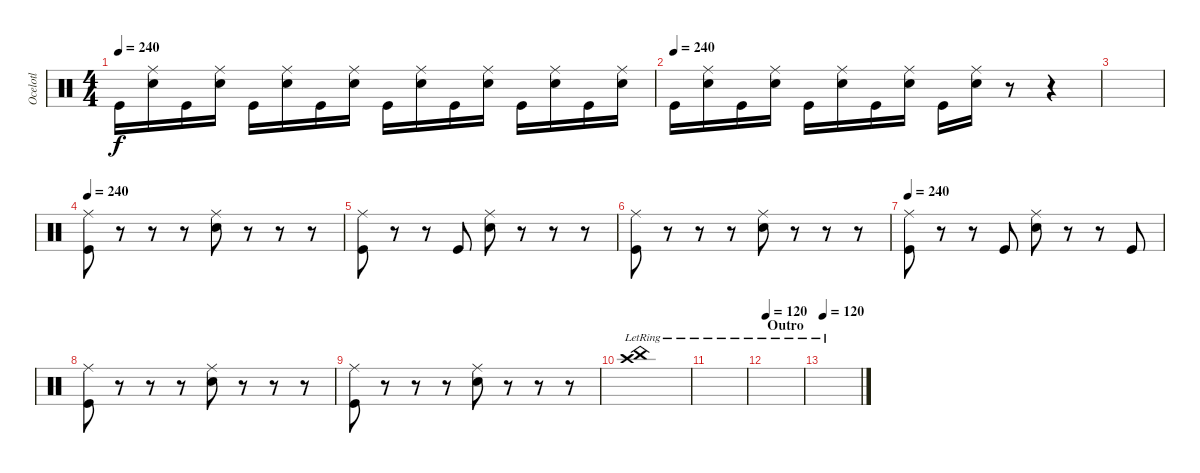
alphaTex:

\track ("Ocelotl" "Ocelotl") {instrument percussion}
\staff {score}
\articulation defaults
\ts (4 4)
\tempo 240
\clef neutral
\ks c "Kick (hit)".16{dy f}
("Ride (middle)" "Snare (hit) 2").16 "Kick (hit)".16 ("Ride (middle)" "Snare (hit) 2").16 "Kick (hit)".16 ("Ride (middle)" "Snare (hit) 2").16 "Kick (hit)".16 ("Ride (middle)" "Snare (hit) 2").16 "Kick (hit)".16 ("Ride (middle)" "Snare (hit) 2").16 "Kick (hit)".16 ("Ride (middle)" "Snare (hit) 2").16 "Kick (hit)".16 ("Ride (middle)" "Snare (hit) 2").16 "Kick (hit)".16 ("Ride (middle)" "Snare (hit) 2").16 |
\tempo (240)
"Kick (hit)".16 ("Ride (middle)" "Snare (hit) 2").16 "Kick (hit)".16 ("Ride (middle)" "Snare (hit) 2").16 "Kick (hit)".16 ("Ride (middle)" "Snare (hit) 2").16 "Kick (hit)".16 ("Ride (middle)" "Snare (hit) 2").16 "Kick (hit)".16 ("Ride (middle)" "Snare (hit) 2").16 r.8 r.4 |
|
\tempo 240
("Ride (middle)" "Kick (hit)").8 r.8 r.8 r.8 ("Ride (middle)" "Snare (hit) 2").8 r.8 r.8 r.8 |
("Ride (middle)" "Kick (hit)").8 r.8 r.8 "Kick (hit)".8 ("Ride (middle)" "Snare (hit) 2").8 r.8 r.8 r.8 |
("Ride (middle)" "Kick (hit)").8 r.8 r.8 r.8 ("Ride (middle)" "Snare (hit) 2").8 r.8 r.8 r.8 |
\tempo 240
("Ride (middle)" "Kick (hit)").8 r.8 r.8 "Kick (hit)".8 ("Ride (middle)" "Snare (hit) 2").8 r.8 r.8 "Kick (hit)".8 |
("Ride (middle)" "Kick (hit)").8 r.8 r.8 r.8 ("Ride (middle)" "Snare (hit) 2").8 r.8 r.8 r.8 |
("Ride (middle)" "Kick (hit)").8 r.8 r.8 r.8 ("Ride (middle)" "Snare (hit) 2").8 r.8 r.8 r.8 |
("Crash high (hit)"{lr} "China (hit)"{lr}).1 |
|
\section ("" "Outro")
\tempo 120
|
\tempo 120
